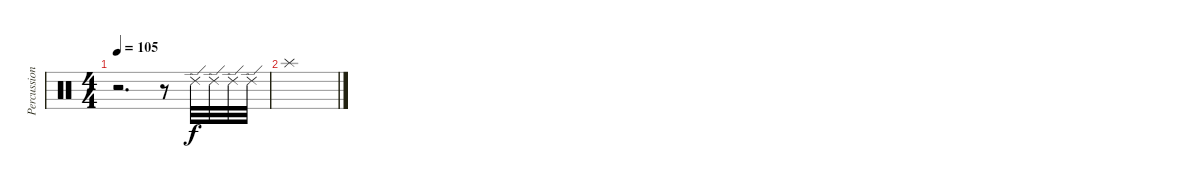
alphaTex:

\track ("Percussion" "Percussion") {instrument percussion}
\staff {score}
\articulation defaults
\ts (4 4)
\tempo 105
\clef neutral
\ks c
r.2{d dy f} r.8 "Ride (edge) 2".32 "Ride (edge) 2".32 "Ride (edge) 2".32 "Ride (edge) 2".32 |
"Splash (hit)".1
